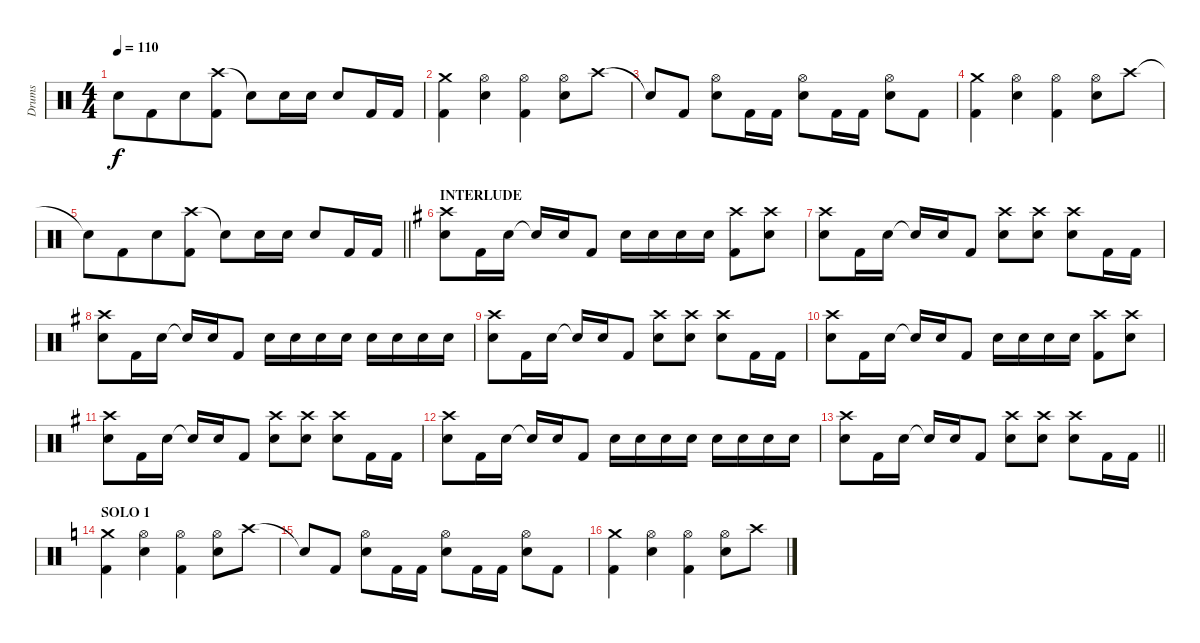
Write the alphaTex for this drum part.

\track ("Drums" "Drums") {instrument percussion}
\staff {score}
\articulation defaults
\ts (4 4)
\tempo 110
\clef neutral
\ks aminor "Snare (hit)"{t}.8{dy f} "Kick (hit) 2".8{beam merge} "Electric Snare (hit)".8
("Crash high (hit)" "Kick (hit) 2").8 "Snare (hit)"{t}.8 "Electric Snare (hit)".16 "Electric Snare (hit)".16 "Electric Snare (hit)".8 "Kick (hit) 2".16 "Kick (hit) 2".16 |
("Crash medium (hit)" "Kick (hit) 2").4 ("Hi-Hat (open)" "Electric Snare (hit)").4 ("Hi-Hat (open)" "Kick (hit) 2").4 ("Hi-Hat (open)" "Electric Snare (hit)").8 "Crash high (hit)".8 |
"Snare (hit)"{t}.8 "Kick (hit) 2".8 ("Hi-Hat (open)" "Electric Snare (hit)").8 "Kick (hit) 2".16 "Kick (hit) 2".16 ("Hi-Hat (open)" "Electric Snare (hit)").8 "Kick (hit) 2".16 "Kick (hit) 2".16 ("Hi-Hat (open)" "Electric Snare (hit)").8 "Kick (hit) 2".8 |
("Crash medium (hit)" "Kick (hit) 2").4 ("Hi-Hat (open)" "Electric Snare (hit)").4 ("Hi-Hat (open)" "Kick (hit) 2").4 ("Hi-Hat (open)" "Electric Snare (hit)").8 "Crash high (hit)".8 |
\barLineRight lightlight "Snare (hit)"{t}.8 "Kick (hit) 2".8{beam merge} "Electric Snare (hit)".8
("Crash high (hit)" "Kick (hit) 2").8 "Snare (hit)"{t}.8 "Electric Snare (hit)".16 "Electric Snare (hit)".16 "Electric Snare (hit)".8 "Kick (hit) 2".16 "Kick (hit) 2".16 |
\section ("" "INTERLUDE")
\ks eminor
("Crash high (hit)" "Electric Snare (hit)").8 "Kick (hit) 2".16 "Electric Snare (hit)".16 "Snare (hit)"{t}.16 "Electric Snare (hit)".16 "Kick (hit) 2".8 "Electric Snare (hit)".16 "Electric Snare (hit)".16 "Electric Snare (hit)".16 "Electric Snare (hit)".16 ("Crash high (hit)" "Kick (hit) 2").8 ("Crash high (hit)" "Electric Snare (hit)").8 |
("Crash high (hit)" "Electric Snare (hit)").8 "Kick (hit) 2".16 "Electric Snare (hit)".16 "Snare (hit)"{t}.16 "Electric Snare (hit)".16 "Kick (hit) 2".8 ("Crash high (hit)" "Electric Snare (hit)").8 ("Crash high (hit)" "Electric Snare (hit)").8 ("Crash high (hit)" "Electric Snare (hit)").8 "Kick (hit) 2".16 "Kick (hit) 2".16 |
("Crash high (hit)" "Electric Snare (hit)").8 "Kick (hit) 2".16 "Electric Snare (hit)".16 "Snare (hit)"{t}.16 "Electric Snare (hit)".16 "Kick (hit) 2".8 "Electric Snare (hit)".16 "Electric Snare (hit)".16 "Electric Snare (hit)".16 "Electric Snare (hit)".16 "Electric Snare (hit)".16 "Electric Snare (hit)".16 "Electric Snare (hit)".16 "Electric Snare (hit)".16 |
("Crash high (hit)" "Electric Snare (hit)").8 "Kick (hit) 2".16 "Electric Snare (hit)".16 "Snare (hit)"{t}.16 "Electric Snare (hit)".16 "Kick (hit) 2".8 ("Crash high (hit)" "Electric Snare (hit)").8 ("Crash high (hit)" "Electric Snare (hit)").8 ("Crash high (hit)" "Electric Snare (hit)").8 "Kick (hit) 2".16 "Kick (hit) 2".16 |
("Crash high (hit)" "Electric Snare (hit)").8 "Kick (hit) 2".16 "Electric Snare (hit)".16 "Snare (hit)"{t}.16 "Electric Snare (hit)".16 "Kick (hit) 2".8 "Electric Snare (hit)".16 "Electric Snare (hit)".16 "Electric Snare (hit)".16 "Electric Snare (hit)".16 ("Crash high (hit)" "Kick (hit) 2").8 ("Crash high (hit)" "Electric Snare (hit)").8 |
("Crash high (hit)" "Electric Snare (hit)").8 "Kick (hit) 2".16 "Electric Snare (hit)".16 "Snare (hit)"{t}.16 "Electric Snare (hit)".16 "Kick (hit) 2".8 ("Crash high (hit)" "Electric Snare (hit)").8 ("Crash high (hit)" "Electric Snare (hit)").8 ("Crash high (hit)" "Electric Snare (hit)").8 "Kick (hit) 2".16 "Kick (hit) 2".16 |
("Crash high (hit)" "Electric Snare (hit)").8 "Kick (hit) 2".16 "Electric Snare (hit)".16 "Snare (hit)"{t}.16 "Electric Snare (hit)".16 "Kick (hit) 2".8 "Electric Snare (hit)".16 "Electric Snare (hit)".16 "Electric Snare (hit)".16 "Electric Snare (hit)".16 "Electric Snare (hit)".16 "Electric Snare (hit)".16 "Electric Snare (hit)".16 "Electric Snare (hit)".16 |
\barLineRight lightlight
("Crash high (hit)" "Electric Snare (hit)").8 "Kick (hit) 2".16 "Electric Snare (hit)".16 "Snare (hit)"{t}.16 "Electric Snare (hit)".16 "Kick (hit) 2".8 ("Crash high (hit)" "Electric Snare (hit)").8 ("Crash high (hit)" "Electric Snare (hit)").8 ("Crash high (hit)" "Electric Snare (hit)").8 "Kick (hit) 2".16 "Kick (hit) 2".16 |
\section ("" "SOLO 1")
\ks aminor
("Crash medium (hit)" "Kick (hit) 2").4 ("Hi-Hat (open)" "Electric Snare (hit)").4 ("Hi-Hat (open)" "Kick (hit) 2").4 ("Hi-Hat (open)" "Electric Snare (hit)").8 "Crash high (hit)".8 |
"Snare (hit)"{t}.8 "Kick (hit) 2".8 ("Hi-Hat (open)" "Electric Snare (hit)").8 "Kick (hit) 2".16 "Kick (hit) 2".16 ("Hi-Hat (open)" "Electric Snare (hit)").8 "Kick (hit) 2".16 "Kick (hit) 2".16 ("Hi-Hat (open)" "Electric Snare (hit)").8 "Kick (hit) 2".8 |
("Crash medium (hit)" "Kick (hit) 2").4 ("Hi-Hat (open)" "Electric Snare (hit)").4 ("Hi-Hat (open)" "Kick (hit) 2").4 ("Hi-Hat (open)" "Electric Snare (hit)").8 "Crash high (hit)".8
